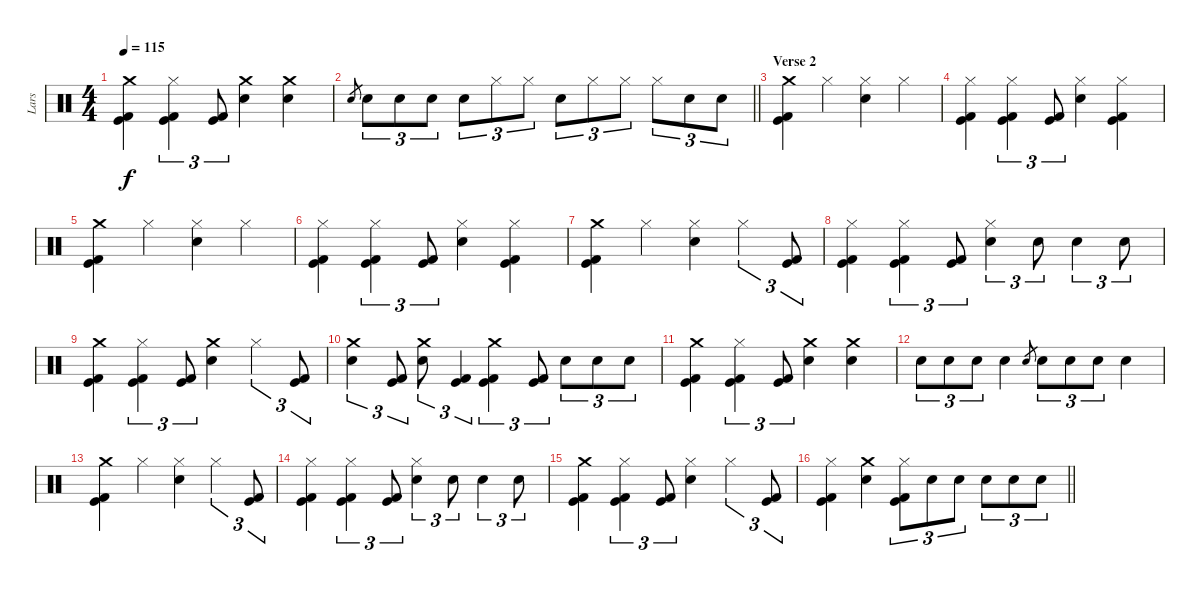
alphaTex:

\track ("Lars" "Lars") {instrument percussion}
\staff {score}
\articulation defaults
\ts (4 4)
\tempo 115
\clef neutral
\ks c
("Crash medium (hit)" "Kick (hit)" "Kick (hit) 2").4{dy f} ("Hi-Hat (closed)" "Kick (hit)" "Kick (hit) 2").4{tu (3 2)} ("Kick (hit)" "Kick (hit) 2").8{tu (3 2)} ("Crash medium (hit)" "Electric Snare (hit)").4 ("Crash medium (hit)" "Electric Snare (hit)").4 |
\barLineRight lightlight "Electric Snare (hit)".8{gr} "Electric Snare (hit)".8{tu (3 2)} "Electric Snare (hit)".8{tu (3 2)} "Electric Snare (hit)".8{tu (3 2)} "Electric Snare (hit)".8{tu (3 2)} "Hi-Hat (closed)".8{tu (3 2)} "Hi-Hat (closed)".8{tu (3 2)} "Electric Snare (hit)".8{tu (3 2)} "Hi-Hat (closed)".8{tu (3 2)} "Hi-Hat (closed)".8{tu (3 2)} "Hi-Hat (closed)".8{tu (3 2)} "Electric Snare (hit)".8{tu (3 2)} "Electric Snare (hit)".8{tu (3 2)}
|
\section ("" "Verse 2")
("Crash medium (hit)" "Kick (hit)" "Kick (hit) 2").4 "Hi-Hat (closed)".4 ("Hi-Hat (closed)" "Electric Snare (hit)").4 "Hi-Hat (closed)".4 |
("Hi-Hat (closed)" "Kick (hit)" "Kick (hit) 2").4 ("Hi-Hat (closed)" "Kick (hit)" "Kick (hit) 2").4{tu (3 2)} ("Kick (hit)" "Kick (hit) 2").8{tu (3 2)} ("Hi-Hat (closed)" "Electric Snare (hit)").4 ("Hi-Hat (closed)" "Kick (hit)" "Kick (hit) 2").4 |
("Crash medium (hit)" "Kick (hit)" "Kick (hit) 2").4 "Hi-Hat (closed)".4 ("Hi-Hat (closed)" "Electric Snare (hit)").4 "Hi-Hat (closed)".4 |
("Hi-Hat (closed)" "Kick (hit)" "Kick (hit) 2").4 ("Hi-Hat (closed)" "Kick (hit)" "Kick (hit) 2").4{tu (3 2)} ("Kick (hit)" "Kick (hit) 2").8{tu (3 2)} ("Hi-Hat (closed)" "Electric Snare (hit)").4 ("Hi-Hat (closed)" "Kick (hit)" "Kick (hit) 2").4 |
("Crash medium (hit)" "Kick (hit)" "Kick (hit) 2").4 "Hi-Hat (closed)".4 ("Hi-Hat (closed)" "Electric Snare (hit)").4 "Hi-Hat (closed)".4{tu (3 2)} ("Kick (hit)" "Kick (hit) 2").8{tu (3 2)} |
("Hi-Hat (closed)" "Kick (hit)" "Kick (hit) 2").4 ("Hi-Hat (closed)" "Kick (hit)" "Kick (hit) 2").4{tu (3 2)} ("Kick (hit)" "Kick (hit) 2").8{tu (3 2)} ("Hi-Hat (closed)" "Electric Snare (hit)").4{tu (3 2)} "Electric Snare (hit)".8{tu (3 2)} "Electric Snare (hit)".4{tu (3 2)} "Electric Snare (hit)".8{tu (3 2)} |
("Crash medium (hit)" "Kick (hit)" "Kick (hit) 2").4 ("Hi-Hat (closed)" "Kick (hit)" "Kick (hit) 2").4{tu (3 2)} ("Kick (hit)" "Kick (hit) 2").8{tu (3 2)} ("Crash medium (hit)" "Electric Snare (hit)").4 "Hi-Hat (closed)".4{tu (3 2)} ("Kick (hit)" "Kick (hit) 2").8{tu (3 2)} |
("Crash medium (hit)" "Electric Snare (hit)").4{tu (3 2)} ("Kick (hit)" "Kick (hit) 2").8{tu (3 2)} ("Crash medium (hit)" "Electric Snare (hit)").8{tu (3 2)} ("Kick (hit)" "Kick (hit) 2").4{tu (3 2)} ("Crash medium (hit)" "Kick (hit)" "Kick (hit) 2").4{tu (3 2)} ("Kick (hit)" "Kick (hit) 2").8{tu (3 2)} "Electric Snare (hit)".8{tu (3 2)} "Electric Snare (hit)".8{tu (3 2)} "Electric Snare (hit)".8{tu (3 2)} |
("Crash medium (hit)" "Kick (hit)" "Kick (hit) 2").4 ("Hi-Hat (closed)" "Kick (hit)" "Kick (hit) 2").4{tu (3 2)} ("Kick (hit)" "Kick (hit) 2").8{tu (3 2)} ("Crash medium (hit)" "Electric Snare (hit)").4 ("Crash medium (hit)" "Electric Snare (hit)").4 |
"Electric Snare (hit)".8{tu (3 2)} "Electric Snare (hit)".8{tu (3 2)} "Electric Snare (hit)".8{tu (3 2)} "Electric Snare (hit)".4 "Electric Snare (hit)".8{gr} "Electric Snare (hit)".8{tu (3 2)} "Electric Snare (hit)".8{tu (3 2)} "Electric Snare (hit)".8{tu (3 2)} "Electric Snare (hit)".4 |
("Crash medium (hit)" "Kick (hit)" "Kick (hit) 2").4 "Hi-Hat (closed)".4 ("Hi-Hat (closed)" "Electric Snare (hit)").4 "Hi-Hat (closed)".4{tu (3 2)} ("Kick (hit)" "Kick (hit) 2").8{tu (3 2)} |
("Hi-Hat (closed)" "Kick (hit)" "Kick (hit) 2").4 ("Hi-Hat (closed)" "Kick (hit)" "Kick (hit) 2").4{tu (3 2)} ("Kick (hit)" "Kick (hit) 2").8{tu (3 2)} ("Hi-Hat (closed)" "Electric Snare (hit)").4{tu (3 2)} "Electric Snare (hit)".8{tu (3 2)} "Electric Snare (hit)".4{tu (3 2)} "Electric Snare (hit)".8{tu (3 2)} |
("Crash medium (hit)" "Kick (hit)" "Kick (hit) 2").4 ("Hi-Hat (closed)" "Kick (hit)" "Kick (hit) 2").4{tu (3 2)} ("Kick (hit)" "Kick (hit) 2").8{tu (3 2)} ("Hi-Hat (closed)" "Electric Snare (hit)").4 "Hi-Hat (closed)".4{tu (3 2)} ("Kick (hit)" "Kick (hit) 2").8{tu (3 2)} |
\barLineRight lightlight
("Hi-Hat (closed)" "Kick (hit)" "Kick (hit) 2").4 ("Crash medium (hit)" "Electric Snare (hit)").4 ("Hi-Hat (closed)" "Kick (hit)" "Kick (hit) 2").8{tu (3 2)} "Electric Snare (hit)".8{tu (3 2)} "Electric Snare (hit)".8{tu (3 2)} "Electric Snare (hit)".8{tu (3 2)} "Electric Snare (hit)".8{tu (3 2)} "Electric Snare (hit)".8{tu (3 2)}
